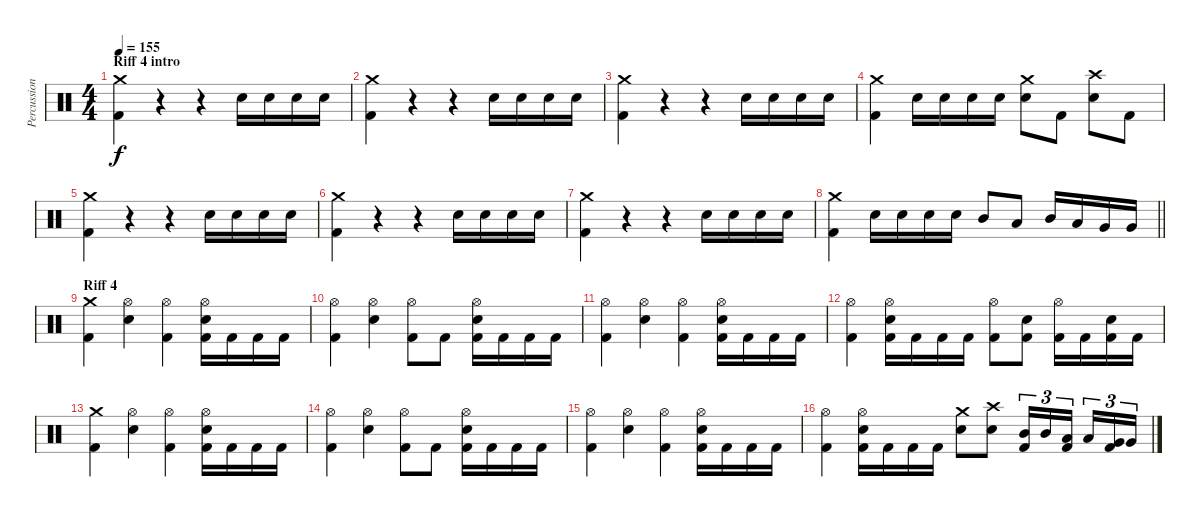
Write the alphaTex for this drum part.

\track ("Percussion" "Percussion") {instrument percussion}
\staff {score}
\articulation defaults
\ts (4 4)
\section ("" "Riff 4 intro")
\tempo 155
\clef neutral
\ks c
("Crash medium (hit)" "Kick (hit) 2").4{dy f} r.4 r.4 "Snare (hit) 2".16 "Snare (hit) 2".16 "Snare (hit) 2".16 "Snare (hit) 2".16 |
("Crash medium (hit)" "Kick (hit) 2").4 r.4 r.4 "Snare (hit) 2".16 "Snare (hit) 2".16 "Snare (hit) 2".16 "Snare (hit) 2".16 |
("Crash medium (hit)" "Kick (hit) 2").4 r.4 r.4 "Snare (hit) 2".16 "Snare (hit) 2".16 "Snare (hit) 2".16 "Snare (hit) 2".16 |
("Crash medium (hit)" "Kick (hit) 2").4 "Snare (hit) 2".16 "Snare (hit) 2".16 "Snare (hit) 2".16 "Snare (hit) 2".16 ("Crash medium (hit)" "Snare (hit) 2").8 "Kick (hit) 2".8 ("Crash high (hit)" "Snare (hit) 2").8 "Kick (hit) 2".8 |
("Crash medium (hit)" "Kick (hit) 2").4 r.4 r.4 "Snare (hit) 2".16 "Snare (hit) 2".16 "Snare (hit) 2".16 "Snare (hit) 2".16 |
("Crash medium (hit)" "Kick (hit) 2").4 r.4 r.4 "Snare (hit) 2".16 "Snare (hit) 2".16 "Snare (hit) 2".16 "Snare (hit) 2".16 |
("Crash medium (hit)" "Kick (hit) 2").4 r.4 r.4 "Snare (hit) 2".16 "Snare (hit) 2".16 "Snare (hit) 2".16 "Snare (hit) 2".16 |
\barLineRight lightlight
("Crash medium (hit)" "Kick (hit) 2").4 "Snare (hit) 2".16 "Snare (hit) 2".16 "Snare (hit) 2".16 "Snare (hit) 2".16 "Mid Tom (hit)".8 "Low Tom (hit)".8 "Mid Tom (hit)".16 "Low Tom (hit)".16 "Very Low Tom (hit)".16 "Very Low Tom (hit)".16 |
\section ("" "Riff 4")
("Crash medium (hit)" "Kick (hit) 2").4 ("Hi-Hat (open)" "Snare (hit) 2").4 ("Hi-Hat (open)" "Kick (hit) 2").4 ("Kick (hit) 2" "Hi-Hat (open)" "Snare (hit) 2").16 "Kick (hit) 2".16 "Kick (hit) 2".16 "Kick (hit) 2".16 |
("Hi-Hat (open)" "Kick (hit) 2").4 ("Hi-Hat (open)" "Snare (hit) 2").4 ("Hi-Hat (open)" "Kick (hit) 2").8 "Kick (hit) 2".8 ("Kick (hit) 2" "Hi-Hat (open)" "Snare (hit) 2").16 "Kick (hit) 2".16 "Kick (hit) 2".16 "Kick (hit) 2".16 |
("Hi-Hat (open)" "Kick (hit) 2").4 ("Hi-Hat (open)" "Snare (hit) 2").4 ("Hi-Hat (open)" "Kick (hit) 2").4 ("Kick (hit) 2" "Hi-Hat (open)" "Snare (hit) 2").16 "Kick (hit) 2".16 "Kick (hit) 2".16 "Kick (hit) 2".16 |
("Hi-Hat (open)" "Kick (hit) 2").4 ("Kick (hit) 2" "Hi-Hat (open)" "Snare (hit) 2").16 "Kick (hit) 2".16 "Kick (hit) 2".16 "Kick (hit) 2".16 ("Hi-Hat (open)" "Kick (hit) 2").8 ("Kick (hit) 2" "Snare (hit) 2").8 ("Hi-Hat (open)" "Kick (hit) 2").16 "Kick (hit) 2".16 ("Kick (hit) 2" "Snare (hit) 2").16 "Kick (hit) 2".16 |
("Crash medium (hit)" "Kick (hit) 2").4 ("Hi-Hat (open)" "Snare (hit) 2").4 ("Hi-Hat (open)" "Kick (hit) 2").4 ("Kick (hit) 2" "Hi-Hat (open)" "Snare (hit) 2").16 "Kick (hit) 2".16 "Kick (hit) 2".16 "Kick (hit) 2".16 |
("Hi-Hat (open)" "Kick (hit) 2").4 ("Hi-Hat (open)" "Snare (hit) 2").4 ("Hi-Hat (open)" "Kick (hit) 2").8 "Kick (hit) 2".8 ("Kick (hit) 2" "Hi-Hat (open)" "Snare (hit) 2").16 "Kick (hit) 2".16 "Kick (hit) 2".16 "Kick (hit) 2".16 |
("Hi-Hat (open)" "Kick (hit) 2").4 ("Hi-Hat (open)" "Snare (hit) 2").4 ("Hi-Hat (open)" "Kick (hit) 2").4 ("Kick (hit) 2" "Hi-Hat (open)" "Snare (hit) 2").16 "Kick (hit) 2".16 "Kick (hit) 2".16 "Kick (hit) 2".16 |
("Hi-Hat (open)" "Kick (hit) 2").4 ("Kick (hit) 2" "Hi-Hat (open)" "Snare (hit) 2").16 "Kick (hit) 2".16 "Kick (hit) 2".16 "Kick (hit) 2".16 ("Crash medium (hit)" "Snare (hit) 2").8 ("Crash high (hit)" "Snare (hit) 2").8 ("Kick (hit) 2" "Mid Tom (hit)").16{tu (3 2)} "Mid Tom (hit)".16{tu (3 2)} ("Kick (hit) 2" "Low Tom (hit)").16{tu (3 2)} "Low Tom (hit)".16{tu (3 2)} ("Kick (hit) 2" "Very Low Tom (hit)").16{tu (3 2)} "Very Low Tom (hit)".16{tu (3 2)}
